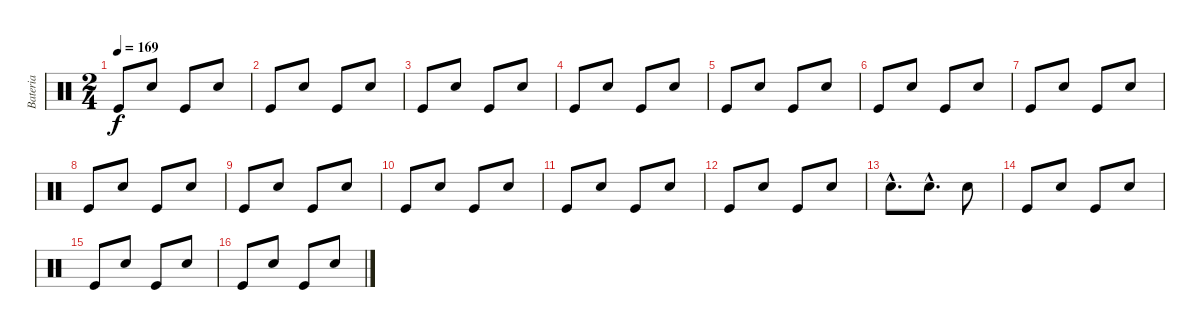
\track ("Bateria" "Bateria") {instrument percussion}
\staff {score}
\articulation defaults
\ts (2 4)
\tempo 169
\clef neutral
\ks c "Kick (hit)".8{dy f} "Snare (hit) 2".8 "Kick (hit)".8 "Snare (hit) 2".8
|
"Kick (hit)".8 "Snare (hit) 2".8 "Kick (hit)".8 "Snare (hit) 2".8 |
"Kick (hit)".8 "Snare (hit) 2".8 "Kick (hit)".8 "Snare (hit) 2".8 |
"Kick (hit)".8 "Snare (hit) 2".8 "Kick (hit)".8 "Snare (hit) 2".8 |
"Kick (hit)".8 "Snare (hit) 2".8 "Kick (hit)".8 "Snare (hit) 2".8 |
"Kick (hit)".8 "Snare (hit) 2".8 "Kick (hit)".8 "Snare (hit) 2".8 |
"Kick (hit)".8 "Snare (hit) 2".8 "Kick (hit)".8 "Snare (hit) 2".8 |
"Kick (hit)".8 "Snare (hit) 2".8 "Kick (hit)".8 "Snare (hit) 2".8 |
"Kick (hit)".8 "Snare (hit) 2".8 "Kick (hit)".8 "Snare (hit) 2".8 |
"Kick (hit)".8 "Snare (hit) 2".8 "Kick (hit)".8 "Snare (hit) 2".8 |
"Kick (hit)".8 "Snare (hit) 2".8 "Kick (hit)".8 "Snare (hit) 2".8 |
"Kick (hit)".8 "Snare (hit) 2".8 "Kick (hit)".8 "Snare (hit) 2".8 |
"Snare (hit) 2"{hac}.8{d} "Snare (hit) 2"{hac}.8{d} "Snare (hit) 2".8 |
"Kick (hit)".8 "Snare (hit) 2".8 "Kick (hit)".8 "Snare (hit) 2".8 |
"Kick (hit)".8 "Snare (hit) 2".8 "Kick (hit)".8 "Snare (hit) 2".8 |
"Kick (hit)".8 "Snare (hit) 2".8 "Kick (hit)".8 "Snare (hit) 2".8
